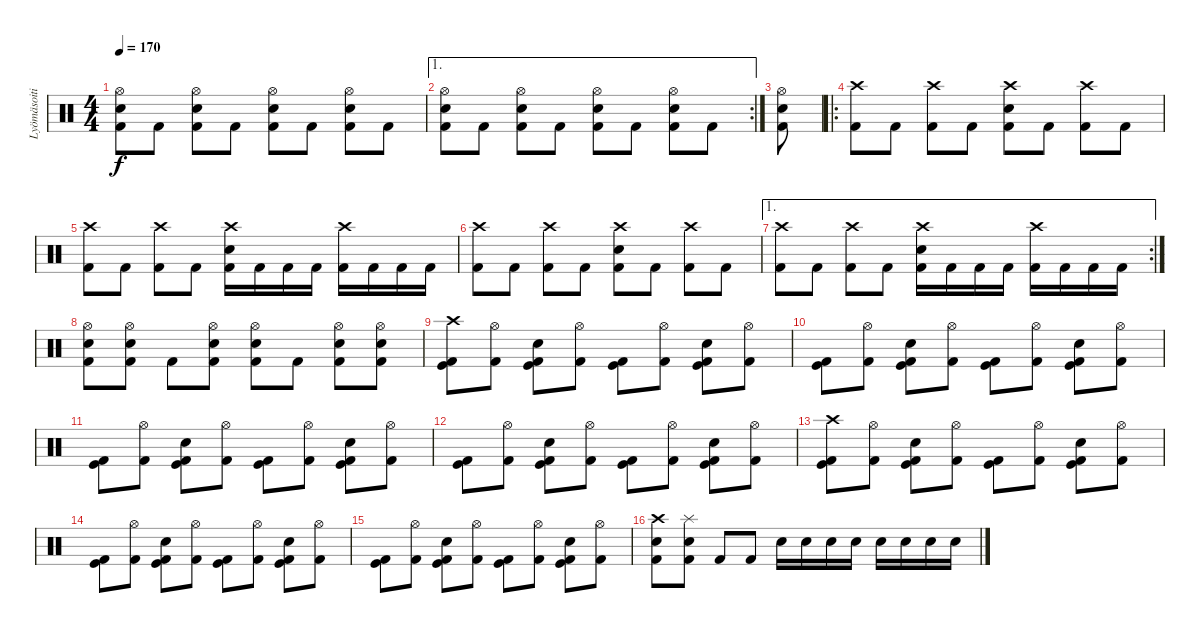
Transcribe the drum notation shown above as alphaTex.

\track ("Lyömäsoitin" "Lyömäsoiti") {instrument percussion}
\staff {score}
\articulation defaults
\ts (4 4)
\tempo 170
\clef neutral
\ks c
("Kick (hit) 2" "Electric Snare (hit)" "Hi-Hat (open)").8{dy f} "Kick (hit) 2".8 ("Kick (hit) 2" "Electric Snare (hit)" "Hi-Hat (open)").8 "Kick (hit) 2".8 ("Kick (hit) 2" "Electric Snare (hit)" "Hi-Hat (open)").8 "Kick (hit) 2".8 ("Kick (hit) 2" "Electric Snare (hit)" "Hi-Hat (open)").8 "Kick (hit) 2".8 |
\ae 1
\rc 2
("Kick (hit) 2" "Electric Snare (hit)" "Hi-Hat (open)").8 "Kick (hit) 2".8 ("Kick (hit) 2" "Electric Snare (hit)" "Hi-Hat (open)").8 "Kick (hit) 2".8 ("Kick (hit) 2" "Electric Snare (hit)" "Hi-Hat (open)").8 "Kick (hit) 2".8 ("Kick (hit) 2" "Electric Snare (hit)" "Hi-Hat (open)").8 "Kick (hit) 2".8 |
("Kick (hit) 2" "Electric Snare (hit)" "Hi-Hat (open)").8 |
\ro
("Kick (hit) 2" "Crash high (hit)").8 "Kick (hit) 2".8 ("Kick (hit) 2" "Crash high (hit)").8 "Kick (hit) 2".8 ("Kick (hit) 2" "Electric Snare (hit)" "Crash high (hit)").8 "Kick (hit) 2".8 ("Kick (hit) 2" "Crash high (hit)").8 "Kick (hit) 2".8 |
("Kick (hit) 2" "Crash high (hit)").8 "Kick (hit) 2".8 ("Kick (hit) 2" "Crash high (hit)").8 "Kick (hit) 2".8 ("Kick (hit) 2" "Electric Snare (hit)" "Crash high (hit)").16 "Kick (hit) 2".16 "Kick (hit) 2".16 "Kick (hit) 2".16 ("Kick (hit) 2" "Crash high (hit)").16 "Kick (hit) 2".16 "Kick (hit) 2".16 "Kick (hit) 2".16 |
("Kick (hit) 2" "Crash high (hit)").8 "Kick (hit) 2".8 ("Kick (hit) 2" "Crash high (hit)").8 "Kick (hit) 2".8 ("Kick (hit) 2" "Electric Snare (hit)" "Crash high (hit)").8 "Kick (hit) 2".8 ("Kick (hit) 2" "Crash high (hit)").8 "Kick (hit) 2".8 |
\ae 1
\rc 2
("Kick (hit) 2" "Crash high (hit)").8 "Kick (hit) 2".8 ("Kick (hit) 2" "Crash high (hit)").8 "Kick (hit) 2".8 ("Kick (hit) 2" "Electric Snare (hit)" "Crash high (hit)").16 "Kick (hit) 2".16 "Kick (hit) 2".16 "Kick (hit) 2".16 ("Kick (hit) 2" "Crash high (hit)").16 "Kick (hit) 2".16 "Kick (hit) 2".16 "Kick (hit) 2".16 |
("Kick (hit) 2" "Electric Snare (hit)" "Hi-Hat (open)").8 ("Kick (hit) 2" "Electric Snare (hit)" "Hi-Hat (open)").8 "Kick (hit) 2".8 ("Kick (hit) 2" "Electric Snare (hit)" "Hi-Hat (open)").8 ("Kick (hit) 2" "Electric Snare (hit)" "Hi-Hat (open)").8 "Kick (hit) 2".8 ("Kick (hit) 2" "Electric Snare (hit)" "Hi-Hat (open)").8 ("Kick (hit) 2" "Electric Snare (hit)" "Hi-Hat (open)").8 |
("Kick (hit)" "Kick (hit) 2" "Crash high (hit)").8 ("Kick (hit) 2" "Hi-Hat (open)").8 ("Kick (hit)" "Kick (hit) 2" "Electric Snare (hit)").8 ("Kick (hit) 2" "Hi-Hat (open)").8 ("Kick (hit)" "Kick (hit) 2").8 ("Kick (hit) 2" "Hi-Hat (open)").8 ("Kick (hit)" "Kick (hit) 2" "Electric Snare (hit)").8 ("Kick (hit) 2" "Hi-Hat (open)").8 |
("Kick (hit)" "Kick (hit) 2").8 ("Kick (hit) 2" "Hi-Hat (open)").8 ("Kick (hit)" "Kick (hit) 2" "Electric Snare (hit)").8 ("Kick (hit) 2" "Hi-Hat (open)").8 ("Kick (hit)" "Kick (hit) 2").8 ("Kick (hit) 2" "Hi-Hat (open)").8 ("Kick (hit)" "Kick (hit) 2" "Electric Snare (hit)").8 ("Kick (hit) 2" "Hi-Hat (open)").8 |
("Kick (hit)" "Kick (hit) 2").8 ("Kick (hit) 2" "Hi-Hat (open)").8 ("Kick (hit)" "Kick (hit) 2" "Electric Snare (hit)").8 ("Kick (hit) 2" "Hi-Hat (open)").8 ("Kick (hit)" "Kick (hit) 2").8 ("Kick (hit) 2" "Hi-Hat (open)").8 ("Kick (hit)" "Kick (hit) 2" "Electric Snare (hit)").8 ("Kick (hit) 2" "Hi-Hat (open)").8 |
("Kick (hit)" "Kick (hit) 2").8 ("Kick (hit) 2" "Hi-Hat (open)").8 ("Kick (hit)" "Kick (hit) 2" "Electric Snare (hit)").8 ("Kick (hit) 2" "Hi-Hat (open)").8 ("Kick (hit)" "Kick (hit) 2").8 ("Kick (hit) 2" "Hi-Hat (open)").8 ("Kick (hit)" "Kick (hit) 2" "Electric Snare (hit)").8 ("Kick (hit) 2" "Hi-Hat (open)").8 |
("Kick (hit)" "Kick (hit) 2" "Crash high (hit)").8 ("Kick (hit) 2" "Hi-Hat (open)").8 ("Kick (hit)" "Kick (hit) 2" "Electric Snare (hit)").8 ("Kick (hit) 2" "Hi-Hat (open)").8 ("Kick (hit)" "Kick (hit) 2").8 ("Kick (hit) 2" "Hi-Hat (open)").8 ("Kick (hit)" "Kick (hit) 2" "Electric Snare (hit)").8 ("Kick (hit) 2" "Hi-Hat (open)").8 |
("Kick (hit)" "Kick (hit) 2").8 ("Kick (hit) 2" "Hi-Hat (open)").8 ("Kick (hit)" "Kick (hit) 2" "Electric Snare (hit)").8 ("Kick (hit) 2" "Hi-Hat (open)").8 ("Kick (hit)" "Kick (hit) 2").8 ("Kick (hit) 2" "Hi-Hat (open)").8 ("Kick (hit)" "Kick (hit) 2" "Electric Snare (hit)").8 ("Kick (hit) 2" "Hi-Hat (open)").8 |
("Kick (hit)" "Kick (hit) 2").8 ("Kick (hit) 2" "Hi-Hat (open)").8 ("Kick (hit)" "Kick (hit) 2" "Electric Snare (hit)").8 ("Kick (hit) 2" "Hi-Hat (open)").8 ("Kick (hit)" "Kick (hit) 2").8 ("Kick (hit) 2" "Hi-Hat (open)").8 ("Kick (hit)" "Kick (hit) 2" "Electric Snare (hit)").8 ("Kick (hit) 2" "Hi-Hat (open)").8 |
("Kick (hit) 2" "Electric Snare (hit)" "Crash high (hit)").8 ("Kick (hit) 2" "Electric Snare (hit)" "Splash (hit)").8 "Kick (hit) 2".8 "Kick (hit) 2".8 "Electric Snare (hit)".16 "Electric Snare (hit)".16 "Electric Snare (hit)".16 "Electric Snare (hit)".16 "Electric Snare (hit)".16 "Electric Snare (hit)".16 "Electric Snare (hit)".16 "Electric Snare (hit)".16
